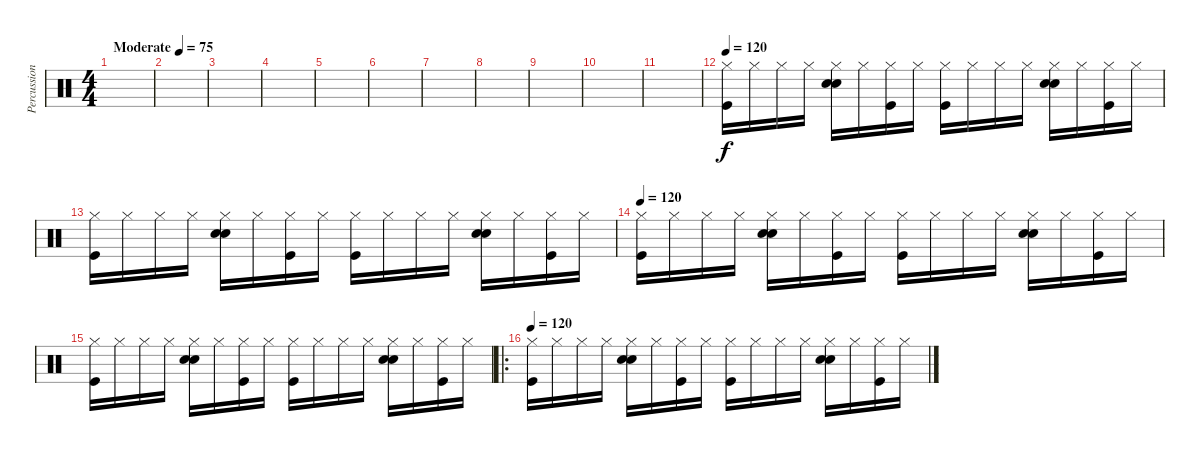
\track ("Percussion" "Percussion") {instrument percussion}
\staff {score}
\articulation defaults
\ts (4 4)
\tempo (75 "Moderate")
\clef neutral
\ks c
|
|
|
|
|
|
|
|
|
|
|
\tempo 120
("Hi-Hat (closed)" "Kick (hit)").16 "Hi-Hat (closed)".16 "Hi-Hat (closed)".16 "Hi-Hat (closed)".16 ("Hi-Hat (closed)" "Hand Clap (hit)" "Snare (hit) 2").16 "Hi-Hat (closed)".16 ("Hi-Hat (closed)" "Kick (hit)").16 "Hi-Hat (closed)".16 ("Hi-Hat (closed)" "Kick (hit)").16 "Hi-Hat (closed)".16 "Hi-Hat (closed)".16 "Hi-Hat (closed)".16 ("Hi-Hat (closed)" "Hand Clap (hit)" "Snare (hit) 2").16 "Hi-Hat (closed)".16 ("Hi-Hat (closed)" "Kick (hit)").16 "Hi-Hat (closed)".16 |
("Hi-Hat (closed)" "Kick (hit)").16 "Hi-Hat (closed)".16 "Hi-Hat (closed)".16 "Hi-Hat (closed)".16 ("Hi-Hat (closed)" "Hand Clap (hit)" "Snare (hit) 2").16 "Hi-Hat (closed)".16 ("Hi-Hat (closed)" "Kick (hit)").16 "Hi-Hat (closed)".16 ("Hi-Hat (closed)" "Kick (hit)").16 "Hi-Hat (closed)".16 "Hi-Hat (closed)".16 "Hi-Hat (closed)".16 ("Hi-Hat (closed)" "Hand Clap (hit)" "Snare (hit) 2").16 "Hi-Hat (closed)".16 ("Hi-Hat (closed)" "Kick (hit)").16 "Hi-Hat (closed)".16 |
\tempo 120
("Hi-Hat (closed)" "Kick (hit)").16 "Hi-Hat (closed)".16 "Hi-Hat (closed)".16 "Hi-Hat (closed)".16 ("Hi-Hat (closed)" "Hand Clap (hit)" "Snare (hit) 2").16 "Hi-Hat (closed)".16 ("Hi-Hat (closed)" "Kick (hit)").16 "Hi-Hat (closed)".16 ("Hi-Hat (closed)" "Kick (hit)").16 "Hi-Hat (closed)".16 "Hi-Hat (closed)".16 "Hi-Hat (closed)".16 ("Hi-Hat (closed)" "Hand Clap (hit)" "Snare (hit) 2").16 "Hi-Hat (closed)".16 ("Hi-Hat (closed)" "Kick (hit)").16 "Hi-Hat (closed)".16 |
("Hi-Hat (closed)" "Kick (hit)").16 "Hi-Hat (closed)".16 "Hi-Hat (closed)".16 "Hi-Hat (closed)".16 ("Hi-Hat (closed)" "Hand Clap (hit)" "Snare (hit) 2").16 "Hi-Hat (closed)".16 ("Hi-Hat (closed)" "Kick (hit)").16 "Hi-Hat (closed)".16 ("Hi-Hat (closed)" "Kick (hit)").16 "Hi-Hat (closed)".16 "Hi-Hat (closed)".16 "Hi-Hat (closed)".16 ("Hi-Hat (closed)" "Hand Clap (hit)" "Snare (hit) 2").16 "Hi-Hat (closed)".16 ("Hi-Hat (closed)" "Kick (hit)").16 "Hi-Hat (closed)".16 |
\ro
\tempo 120
("Hi-Hat (closed)" "Kick (hit)").16 "Hi-Hat (closed)".16 "Hi-Hat (closed)".16 "Hi-Hat (closed)".16 ("Hi-Hat (closed)" "Hand Clap (hit)" "Snare (hit) 2").16 "Hi-Hat (closed)".16 ("Hi-Hat (closed)" "Kick (hit)").16 "Hi-Hat (closed)".16 ("Hi-Hat (closed)" "Kick (hit)").16 "Hi-Hat (closed)".16 "Hi-Hat (closed)".16 "Hi-Hat (closed)".16 ("Hi-Hat (closed)" "Hand Clap (hit)" "Snare (hit) 2").16 "Hi-Hat (closed)".16 ("Hi-Hat (closed)" "Kick (hit)").16 "Hi-Hat (closed)".16
